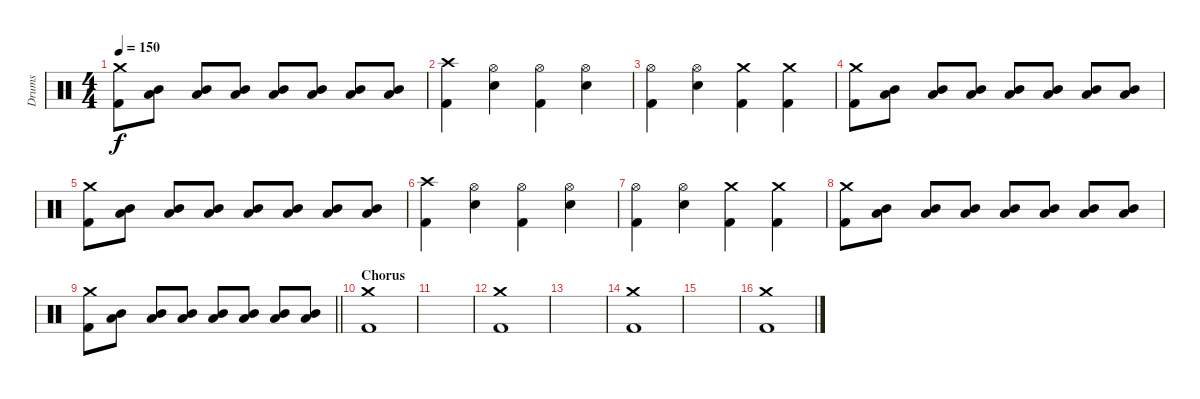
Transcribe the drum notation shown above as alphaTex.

\track ("Drums" "Drums") {instrument percussion}
\staff {score}
\articulation defaults
\ts (4 4)
\tempo 150
\clef neutral
\ks c
("Crash medium (hit)" "Kick (hit) 2").8{dy f} ("Low Tom (hit)" "Mid Tom (hit)").8 ("Low Tom (hit)" "Mid Tom (hit)").8 ("Low Tom (hit)" "Mid Tom (hit)").8 ("Low Tom (hit)" "Mid Tom (hit)").8 ("Low Tom (hit)" "Mid Tom (hit)").8 ("Low Tom (hit)" "Mid Tom (hit)").8 ("Low Tom (hit)" "Mid Tom (hit)").8 |
("Crash high (hit)" "Kick (hit) 2").4 ("Hi-Hat (open)" "Electric Snare (hit)").4 ("Hi-Hat (open)" "Kick (hit) 2").4 ("Hi-Hat (open)" "Electric Snare (hit)").4 |
("Hi-Hat (open)" "Kick (hit) 2").4 ("Electric Snare (hit)" "Hi-Hat (open)").4 ("Crash medium (hit)" "Kick (hit) 2").4 ("Crash medium (hit)" "Kick (hit) 2").4 |
("Crash medium (hit)" "Kick (hit) 2").8 ("Low Tom (hit)" "Mid Tom (hit)").8 ("Low Tom (hit)" "Mid Tom (hit)").8 ("Low Tom (hit)" "Mid Tom (hit)").8 ("Low Tom (hit)" "Mid Tom (hit)").8 ("Low Tom (hit)" "Mid Tom (hit)").8 ("Low Tom (hit)" "Mid Tom (hit)").8 ("Low Tom (hit)" "Mid Tom (hit)").8 |
("Crash medium (hit)" "Kick (hit) 2").8 ("Low Tom (hit)" "Mid Tom (hit)").8 ("Low Tom (hit)" "Mid Tom (hit)").8 ("Low Tom (hit)" "Mid Tom (hit)").8 ("Low Tom (hit)" "Mid Tom (hit)").8 ("Low Tom (hit)" "Mid Tom (hit)").8 ("Low Tom (hit)" "Mid Tom (hit)").8 ("Low Tom (hit)" "Mid Tom (hit)").8 |
("Crash high (hit)" "Kick (hit) 2").4 ("Hi-Hat (open)" "Electric Snare (hit)").4 ("Hi-Hat (open)" "Kick (hit) 2").4 ("Hi-Hat (open)" "Electric Snare (hit)").4 |
("Hi-Hat (open)" "Kick (hit) 2").4 ("Electric Snare (hit)" "Hi-Hat (open)").4 ("Crash medium (hit)" "Kick (hit) 2").4 ("Crash medium (hit)" "Kick (hit) 2").4 |
("Crash medium (hit)" "Kick (hit) 2").8 ("Low Tom (hit)" "Mid Tom (hit)").8 ("Low Tom (hit)" "Mid Tom (hit)").8 ("Low Tom (hit)" "Mid Tom (hit)").8 ("Low Tom (hit)" "Mid Tom (hit)").8 ("Low Tom (hit)" "Mid Tom (hit)").8 ("Low Tom (hit)" "Mid Tom (hit)").8 ("Low Tom (hit)" "Mid Tom (hit)").8 |
\barLineRight lightlight
("Crash medium (hit)" "Kick (hit) 2").8 ("Low Tom (hit)" "Mid Tom (hit)").8 ("Low Tom (hit)" "Mid Tom (hit)").8 ("Low Tom (hit)" "Mid Tom (hit)").8 ("Low Tom (hit)" "Mid Tom (hit)").8 ("Low Tom (hit)" "Mid Tom (hit)").8 ("Low Tom (hit)" "Mid Tom (hit)").8 ("Low Tom (hit)" "Mid Tom (hit)").8 |
\section ("" "Chorus")
("Crash medium (hit)" "Kick (hit) 2").1 |
|
("Crash medium (hit)" "Kick (hit) 2").1 |
|
("Crash medium (hit)" "Kick (hit) 2").1 |
|
("Crash medium (hit)" "Kick (hit) 2").1
